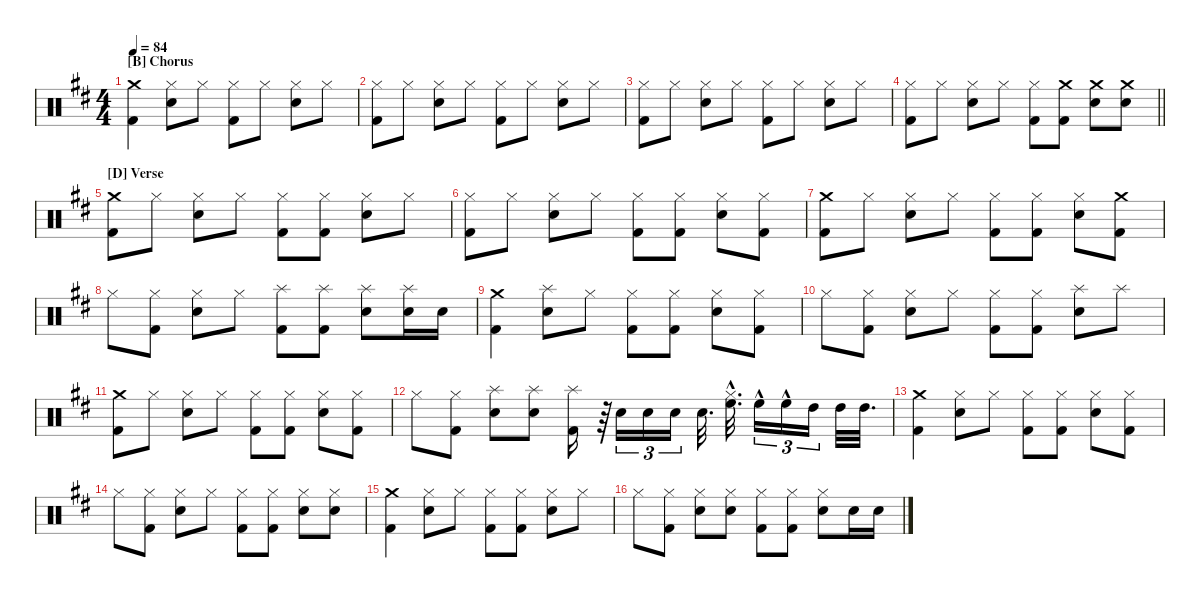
\hideDynamics
\bracketExtendMode nobrackets
\singleTrackTrackNamePolicy hidden
\multiTrackTrackNamePolicy hidden
\otherSystemsTrackNameOrientation horizontal
\track ("Drumkit" "Drums") {instrument percussion}
\staff {score}
\articulation defaults
\ts (4 4)
\section ("B" "Chorus")
\tempo 84
\clef neutral
\ks d
("Kick (hit) 2"{acc forcenatural} "Crash medium (hit)"{acc forcenatural}).4{dy f beam Down} ("Snare (hit) 2"{acc forcenatural} "Hi-Hat (closed)"{acc forcenatural}).8{beam Down} "Hi-Hat (closed)"{acc forcenatural}.8{beam Down} ("Kick (hit) 2"{acc forcenatural} "Hi-Hat (closed)"{acc forcenatural}).8{beam Down} "Hi-Hat (closed)"{acc forcenatural}.8{beam Down} ("Snare (hit) 2"{acc forcenatural} "Hi-Hat (closed)"{acc forcenatural}).8{beam Down} "Hi-Hat (closed)"{acc forcenatural}.8{beam Down} |
("Kick (hit) 2"{acc forcenatural} "Hi-Hat (closed)"{acc forcenatural}).8{beam Down} "Hi-Hat (closed)"{acc forcenatural}.8{beam Down} ("Snare (hit) 2"{acc forcenatural} "Hi-Hat (closed)"{acc forcenatural}).8{beam Down} "Hi-Hat (closed)"{acc forcenatural}.8{beam Down} ("Kick (hit) 2"{acc forcenatural} "Hi-Hat (closed)"{acc forcenatural}).8{beam Down} "Hi-Hat (closed)"{acc forcenatural}.8{beam Down} ("Snare (hit) 2"{acc forcenatural} "Hi-Hat (closed)"{acc forcenatural}).8{beam Down} "Hi-Hat (closed)"{acc forcenatural}.8{beam Down} |
("Kick (hit) 2"{acc forcenatural} "Hi-Hat (closed)"{acc forcenatural}).8{beam Down} "Hi-Hat (closed)"{acc forcenatural}.8{beam Down} ("Snare (hit) 2"{acc forcenatural} "Hi-Hat (closed)"{acc forcenatural}).8{beam Down} "Hi-Hat (closed)"{acc forcenatural}.8{beam Down} ("Kick (hit) 2"{acc forcenatural} "Hi-Hat (closed)"{acc forcenatural}).8{beam Down} "Hi-Hat (closed)"{acc forcenatural}.8{beam Down} ("Snare (hit) 2"{acc forcenatural} "Hi-Hat (closed)"{acc forcenatural}).8{beam Down} "Hi-Hat (closed)"{acc forcenatural}.8{beam Down} |
\barLineRight lightlight
("Kick (hit) 2"{acc forcenatural} "Hi-Hat (closed)"{acc forcenatural}).8{beam Down} "Hi-Hat (closed)"{acc forcenatural}.8{beam Down} ("Snare (hit) 2"{acc forcenatural} "Hi-Hat (closed)"{acc forcenatural}).8{beam Down} "Hi-Hat (closed)"{acc forcenatural}.8{beam Down} ("Kick (hit) 2"{acc forcenatural} "Hi-Hat (closed)"{acc forcenatural}).8{beam Down} ("Kick (hit) 2"{acc forcenatural} "Crash medium (hit)"{acc forcenatural}).8{beam Down} ("Snare (hit) 2"{acc forcenatural} "Crash medium (hit)"{acc forcenatural}).8{beam Down} ("Snare (hit) 2"{acc forcenatural} "Crash medium (hit)"{acc forcenatural}).8{beam Down} |
\section ("D" "Verse")
("Kick (hit) 2"{acc forcenatural} "Crash medium (hit)"{acc forcenatural}).8{beam Down} "Hi-Hat (closed)"{acc forcenatural}.8{beam Down} ("Snare (hit) 2"{acc forcenatural} "Hi-Hat (closed)"{acc forcenatural}).8{beam Down} "Hi-Hat (closed)"{acc forcenatural}.8{beam Down} ("Kick (hit) 2"{acc forcenatural} "Hi-Hat (closed)"{acc forcenatural}).8{beam Down} ("Kick (hit) 2"{acc forcenatural} "Hi-Hat (closed)"{acc forcenatural}).8{beam Down} ("Snare (hit) 2"{acc forcenatural} "Hi-Hat (closed)"{acc forcenatural}).8{beam Down} "Hi-Hat (closed)"{acc forcenatural}.8{beam Down} |
("Kick (hit) 2"{acc forcenatural} "Hi-Hat (closed)"{acc forcenatural}).8{beam Down} "Hi-Hat (closed)"{acc forcenatural}.8{beam Down} ("Snare (hit) 2"{acc forcenatural} "Hi-Hat (closed)"{acc forcenatural}).8{beam Down} "Hi-Hat (closed)"{acc forcenatural}.8{beam Down} ("Kick (hit) 2"{acc forcenatural} "Hi-Hat (closed)"{acc forcenatural}).8{beam Down} ("Kick (hit) 2"{acc forcenatural} "Hi-Hat (closed)"{acc forcenatural}).8{beam Down} ("Snare (hit) 2"{acc forcenatural} "Hi-Hat (closed)"{acc forcenatural}).8{beam Down} ("Kick (hit) 2"{acc forcenatural} "Hi-Hat (closed)"{acc forcenatural}).8{beam Down} |
("Kick (hit) 2"{acc forcenatural} "Crash medium (hit)"{acc forcenatural}).8{beam Down} "Hi-Hat (closed)"{acc forcenatural}.8{beam Down} ("Snare (hit) 2"{acc forcenatural} "Hi-Hat (closed)"{acc forcenatural}).8{beam Down} "Hi-Hat (closed)"{acc forcenatural}.8{beam Down} ("Kick (hit) 2"{acc forcenatural} "Hi-Hat (closed)"{acc forcenatural}).8{beam Down} ("Kick (hit) 2"{acc forcenatural} "Hi-Hat (closed)"{acc forcenatural}).8{beam Down} ("Snare (hit) 2"{acc forcenatural} "Hi-Hat (closed)"{acc forcenatural}).8{beam Down} ("Kick (hit) 2"{acc forcenatural} "Crash medium (hit)"{acc forcenatural}).8{beam Down} |
"Hi-Hat (closed)"{acc forcenatural}.8{beam Down} ("Kick (hit) 2"{acc forcenatural} "Hi-Hat (closed)"{acc forcenatural}).8{beam Down} ("Snare (hit) 2"{acc forcenatural} "Hi-Hat (closed)"{acc forcenatural}).8{beam Down} "Hi-Hat (closed)"{acc forcenatural}.8{beam Down} ("Kick (hit) 2"{acc forcenatural} "Splash (hit)"{acc forcenatural}).8{beam Down} ("Kick (hit) 2"{acc forcenatural} "Splash (hit)"{acc forcenatural}).8{beam Down} ("Snare (hit) 2"{acc forcenatural} "Splash (hit)"{acc forcenatural}).8{beam Down} ("Snare (hit) 2"{acc forcenatural} "Splash (hit)"{acc forcenatural}).16{beam Down} "Snare (hit) 2"{acc forcenatural}.16{beam Down} |
("Kick (hit) 2"{acc forcenatural} "Crash medium (hit)"{acc forcenatural}).4{beam Down} ("Snare (hit) 2"{acc forcenatural} "Splash (hit)"{acc forcenatural}).8{beam Down} "Hi-Hat (closed)"{acc forcenatural}.8{beam Down} ("Kick (hit) 2"{acc forcenatural} "Hi-Hat (closed)"{acc forcenatural}).8{beam Down} ("Kick (hit) 2"{acc forcenatural} "Hi-Hat (closed)"{acc forcenatural}).8{beam Down} ("Snare (hit) 2"{acc forcenatural} "Hi-Hat (closed)"{acc forcenatural}).8{beam Down} ("Kick (hit) 2"{acc forcenatural} "Hi-Hat (closed)"{acc forcenatural}).8{beam Down} |
"Hi-Hat (closed)"{acc forcenatural}.8{beam Down} ("Kick (hit) 2"{acc forcenatural} "Hi-Hat (closed)"{acc forcenatural}).8{beam Down} ("Snare (hit) 2"{acc forcenatural} "Hi-Hat (closed)"{acc forcenatural}).8{beam Down} "Hi-Hat (closed)"{acc forcenatural}.8{beam Down} ("Kick (hit) 2"{acc forcenatural} "Hi-Hat (closed)"{acc forcenatural}).8{beam Down} ("Kick (hit) 2"{acc forcenatural} "Hi-Hat (closed)"{acc forcenatural}).8{beam Down} ("Snare (hit) 2"{acc forcenatural} "Splash (hit)"{acc forcenatural}).8{beam Down} "Splash (hit)"{acc forcenatural}.8{beam Down} |
("Kick (hit) 2"{acc forcenatural} "Crash medium (hit)"{acc forcenatural}).8{beam Down} "Hi-Hat (closed)"{acc forcenatural}.8{beam Down} ("Snare (hit) 2"{acc forcenatural} "Hi-Hat (closed)"{acc forcenatural}).8{beam Down} "Hi-Hat (closed)"{acc forcenatural}.8{beam Down} ("Kick (hit) 2"{acc forcenatural} "Hi-Hat (closed)"{acc forcenatural}).8{beam Down} ("Kick (hit) 2"{acc forcenatural} "Hi-Hat (closed)"{acc forcenatural}).8{beam Down} ("Snare (hit) 2"{acc forcenatural} "Hi-Hat (closed)"{acc forcenatural}).8{beam Down} ("Kick (hit) 2"{acc forcenatural} "Hi-Hat (closed)"{acc forcenatural}).8{beam Down} |
"Hi-Hat (closed)"{acc forcenatural}.8{beam Down} ("Kick (hit) 2"{acc forcenatural} "Hi-Hat (closed)"{acc forcenatural}).8{beam Down} ("Snare (hit) 2"{acc forcenatural} "Splash (hit)"{acc forcenatural}).8{beam Down} ("Snare (hit) 2"{acc forcenatural} "Splash (hit)"{acc forcenatural}).8{beam Down} ("Kick (hit) 2"{acc forcenatural} "Splash (hit)"{acc forcenatural}).16{beam Down} r.64{beam Down} "Snare (hit) 2"{acc forcenatural}.16{tu (3 2) beam Down} "Snare (hit) 2"{acc forcenatural}.16{tu (3 2) beam Down} "Snare (hit) 2"{acc forcenatural}.16{tu (3 2) beam Down} "Snare (hit) 2"{acc forcenatural}.32{d beam Down} ("High Floor Tom (hit)"{hac acc forcenatural} "Hi-Hat (closed)"{hac acc forcenatural}).32{d beam Down} "High Floor Tom (hit)"{hac acc forcenatural}.16{tu (3 2) beam Down} "High Floor Tom (hit)"{hac acc forcenatural}.16{tu (3 2) beam Down} "High Tom (hit)"{acc forcenatural}.16{tu (3 2) beam Down} "High Tom (hit)"{acc forcenatural}.32{beam Down} "High Tom (hit)"{acc forcenatural}.32{d beam Down} |
("Kick (hit) 2"{acc forcenatural} "Crash medium (hit)"{acc forcenatural}).4{beam Down} ("Snare (hit) 2"{acc forcenatural} "Hi-Hat (closed)"{acc forcenatural}).8{beam Down} "Hi-Hat (closed)"{acc forcenatural}.8{beam Down} ("Kick (hit) 2"{acc forcenatural} "Hi-Hat (closed)"{acc forcenatural}).8{beam Down} ("Kick (hit) 2"{acc forcenatural} "Hi-Hat (closed)"{acc forcenatural}).8{beam Down} ("Snare (hit) 2"{acc forcenatural} "Hi-Hat (closed)"{acc forcenatural}).8{beam Down} ("Kick (hit) 2"{acc forcenatural} "Hi-Hat (closed)"{acc forcenatural}).8{beam Down} |
"Hi-Hat (closed)"{acc forcenatural}.8{beam Down} ("Kick (hit) 2"{acc forcenatural} "Hi-Hat (closed)"{acc forcenatural}).8{beam Down} ("Snare (hit) 2"{acc forcenatural} "Hi-Hat (closed)"{acc forcenatural}).8{beam Down} "Hi-Hat (closed)"{acc forcenatural}.8{beam Down} ("Kick (hit) 2"{acc forcenatural} "Hi-Hat (closed)"{acc forcenatural}).8{beam Down} ("Kick (hit) 2"{acc forcenatural} "Hi-Hat (closed)"{acc forcenatural}).8{beam Down} ("Snare (hit) 2"{acc forcenatural} "Hi-Hat (closed)"{acc forcenatural}).8{beam Down} ("Snare (hit) 2"{acc forcenatural} "Hi-Hat (closed)"{acc forcenatural}).8{beam Down} |
("Kick (hit) 2"{acc forcenatural} "Crash medium (hit)"{acc forcenatural}).4{beam Down} ("Snare (hit) 2"{acc forcenatural} "Hi-Hat (closed)"{acc forcenatural}).8{beam Down} "Hi-Hat (closed)"{acc forcenatural}.8{beam Down} ("Kick (hit) 2"{acc forcenatural} "Hi-Hat (closed)"{acc forcenatural}).8{beam Down} ("Kick (hit) 2"{acc forcenatural} "Hi-Hat (closed)"{acc forcenatural}).8{beam Down} ("Snare (hit) 2"{acc forcenatural} "Hi-Hat (closed)"{acc forcenatural}).8{beam Down} "Hi-Hat (closed)"{acc forcenatural}.8{beam Down} |
"Hi-Hat (closed)"{acc forcenatural}.8{beam Down} ("Kick (hit) 2"{acc forcenatural} "Hi-Hat (closed)"{acc forcenatural}).8{beam Down} ("Snare (hit) 2"{acc forcenatural} "Hi-Hat (closed)"{acc forcenatural}).8{beam Down} ("Snare (hit) 2"{acc forcenatural} "Hi-Hat (closed)"{acc forcenatural}).8{beam Down} ("Kick (hit) 2"{acc forcenatural} "Hi-Hat (closed)"{acc forcenatural}).8{beam Down} ("Kick (hit) 2"{acc forcenatural} "Hi-Hat (closed)"{acc forcenatural}).8{beam Down} ("Snare (hit) 2"{acc forcenatural} "Hi-Hat (closed)"{acc forcenatural}).8{beam Down} "Snare (hit) 2"{acc forcenatural}.16{beam Down} "Snare (hit) 2"{acc forcenatural}.16{beam Down}
